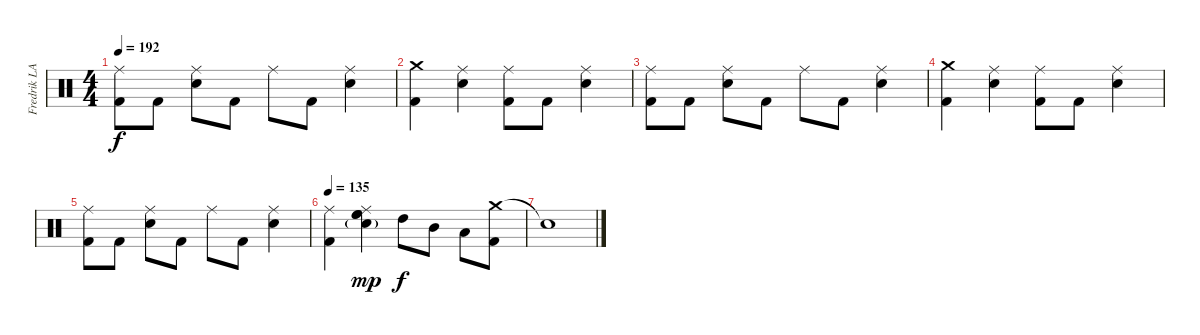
\track ("Fredrik LARZON" "Fredrik LA") {instrument percussion}
\staff {score}
\articulation defaults
\ts (4 4)
\tempo 192
\clef neutral
\ks c
("Ride (middle)" "Kick (hit) 2").8{dy f} "Kick (hit) 2".8 ("Ride (middle)" "Electric Snare (hit)").8 "Kick (hit) 2".8 "Ride (middle)".8 "Kick (hit) 2".8 ("Ride (middle)" "Electric Snare (hit)").4 |
("Crash medium (hit)" "Kick (hit) 2").4 ("Ride (middle)" "Electric Snare (hit)").4 ("Ride (middle)" "Kick (hit) 2").8 "Kick (hit) 2".8 ("Ride (middle)" "Electric Snare (hit)").4 |
("Ride (middle)" "Kick (hit) 2").8 "Kick (hit) 2".8 ("Ride (middle)" "Electric Snare (hit)").8 "Kick (hit) 2".8 "Ride (middle)".8 "Kick (hit) 2".8 ("Ride (middle)" "Electric Snare (hit)").4 |
("Crash medium (hit)" "Kick (hit) 2").4 ("Ride (middle)" "Electric Snare (hit)").4 ("Ride (middle)" "Kick (hit) 2").8 "Kick (hit) 2".8 ("Ride (middle)" "Electric Snare (hit)").4 |
("Ride (middle)" "Kick (hit) 2").8 "Kick (hit) 2".8 ("Ride (middle)" "Electric Snare (hit)").8 "Kick (hit) 2".8 "Ride (middle)".8 "Kick (hit) 2".8 ("Ride (middle)" "Electric Snare (hit)").4 |
\tempo 135
("Ride (middle)" "Kick (hit) 2").4 ("Ride (middle)" "High Floor Tom (hit)" "High Floor Tom (hit)" "Electric Snare (hit)"{g}).4{dy mp} "High Tom (hit)".8{dy f} "Mid Tom (hit)".8 "Low Tom (hit)".8 ("Crash medium (hit)" "Kick (hit) 2").8 |
"Snare (hit)"{t}.1
